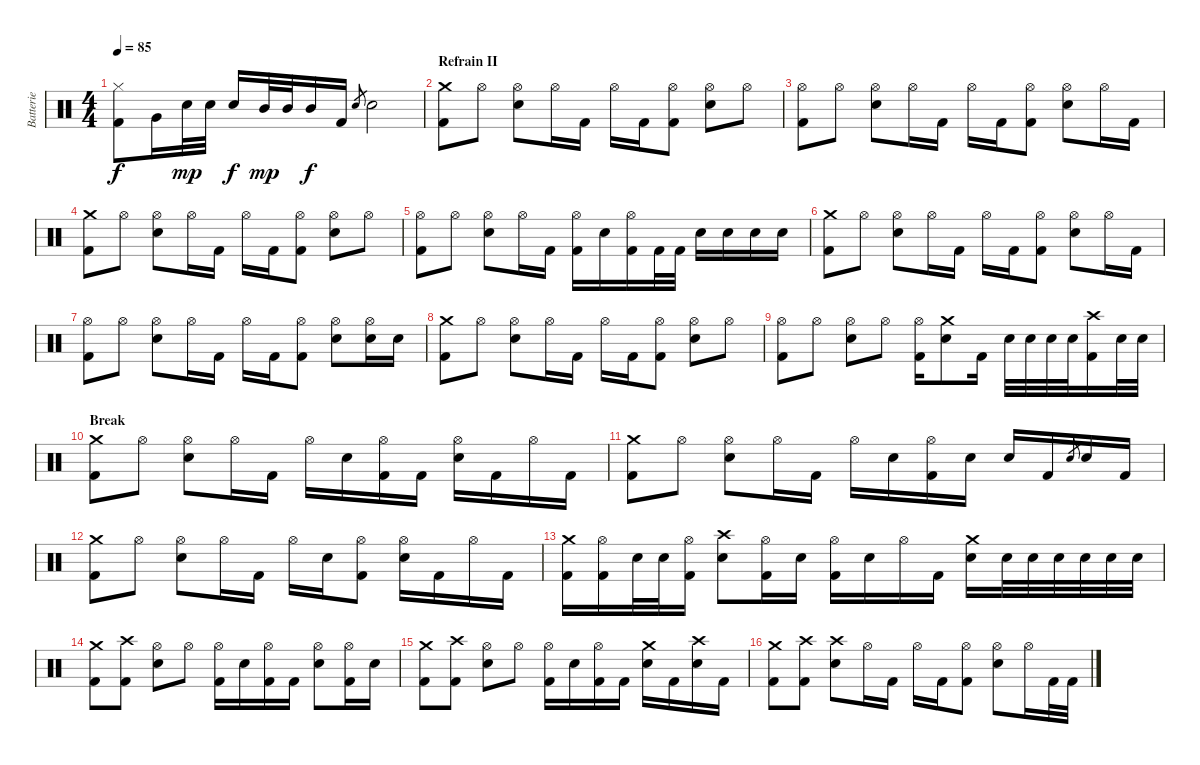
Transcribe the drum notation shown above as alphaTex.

\track ("Batterie" "Batterie") {instrument percussion}
\staff {score}
\articulation defaults
\ts (4 4)
\tempo 85
\clef neutral
\ks c
("Hi-Hat (closed)" "Kick (hit) 2").8{dy f} "Very Low Tom (hit)".16 "Electric Snare (hit)".32{dy mp} "Electric Snare (hit)".32 "Electric Snare (hit)".16{dy f} "Mid Tom (hit)".32{dy mp} "Mid Tom (hit)".32 "Mid Tom (hit)".16{dy f} "Kick (hit) 2".16 "Electric Snare (hit)".8{gr} "Electric Snare (hit)".2 |
\section ("" "Refrain II")
("Crash medium (hit)" "Kick (hit) 2").8 "Hi-Hat (open)".8 ("Hi-Hat (open)" "Electric Snare (hit)").8 "Hi-Hat (open)".16 "Kick (hit) 2".16 "Hi-Hat (open)".16 "Kick (hit) 2".16 ("Hi-Hat (open)" "Kick (hit) 2").8 ("Hi-Hat (open)" "Electric Snare (hit)").8 "Hi-Hat (open)".8 |
("Hi-Hat (open)" "Kick (hit) 2").8 "Hi-Hat (open)".8 ("Hi-Hat (open)" "Electric Snare (hit)").8 "Hi-Hat (open)".16 "Kick (hit) 2".16 "Hi-Hat (open)".16 "Kick (hit) 2".16 ("Hi-Hat (open)" "Kick (hit) 2").8 ("Hi-Hat (open)" "Electric Snare (hit)").8 "Hi-Hat (open)".16 "Kick (hit) 2".16 |
("Crash medium (hit)" "Kick (hit) 2").8 "Hi-Hat (open)".8 ("Hi-Hat (open)" "Electric Snare (hit)").8 "Hi-Hat (open)".16 "Kick (hit) 2".16 "Hi-Hat (open)".16 "Kick (hit) 2".16 ("Hi-Hat (open)" "Kick (hit) 2").8 ("Hi-Hat (open)" "Electric Snare (hit)").8 "Hi-Hat (open)".8 |
("Hi-Hat (open)" "Kick (hit) 2").8 "Hi-Hat (open)".8 ("Hi-Hat (open)" "Electric Snare (hit)").8 "Hi-Hat (open)".16 "Kick (hit) 2".16 ("Hi-Hat (open)" "Kick (hit) 2").16 "Electric Snare (hit)".16 ("Hi-Hat (open)" "Kick (hit) 2").16 "Kick (hit) 2".32 "Kick (hit) 2".32 "Electric Snare (hit)".16 "Electric Snare (hit)".16 "Electric Snare (hit)".16 "Electric Snare (hit)".16 |
("Crash medium (hit)" "Kick (hit) 2").8 "Hi-Hat (open)".8 ("Hi-Hat (open)" "Electric Snare (hit)").8 "Hi-Hat (open)".16 "Kick (hit) 2".16 "Hi-Hat (open)".16 "Kick (hit) 2".16 ("Hi-Hat (open)" "Kick (hit) 2").8 ("Hi-Hat (open)" "Electric Snare (hit)").8 "Hi-Hat (open)".16 "Kick (hit) 2".16 |
("Hi-Hat (open)" "Kick (hit) 2").8 "Hi-Hat (open)".8 ("Hi-Hat (open)" "Electric Snare (hit)").8 "Hi-Hat (open)".16 "Kick (hit) 2".16 "Hi-Hat (open)".16 "Kick (hit) 2".16 ("Hi-Hat (open)" "Kick (hit) 2").8 ("Hi-Hat (open)" "Electric Snare (hit)").8 ("Hi-Hat (open)" "Electric Snare (hit)").16 "Electric Snare (hit)".16 |
("Crash medium (hit)" "Kick (hit) 2").8 "Hi-Hat (open)".8 ("Hi-Hat (open)" "Electric Snare (hit)").8 "Hi-Hat (open)".16 "Kick (hit) 2".16 "Hi-Hat (open)".16 "Kick (hit) 2".16 ("Hi-Hat (open)" "Kick (hit) 2").8 ("Hi-Hat (open)" "Electric Snare (hit)").8 "Hi-Hat (open)".8 |
("Hi-Hat (open)" "Kick (hit) 2").8 "Hi-Hat (open)".8 ("Hi-Hat (open)" "Electric Snare (hit)").8 "Hi-Hat (open)".8 ("Hi-Hat (open)" "Kick (hit) 2").16 ("Crash medium (hit)" "Electric Snare (hit)").8 "Kick (hit) 2".16 "Electric Snare (hit)".32 "Electric Snare (hit)".32 "Electric Snare (hit)".32 "Electric Snare (hit)".32 ("Crash high (hit)" "Kick (hit) 2").16 "Electric Snare (hit)".32 "Electric Snare (hit)".32 |
\section ("" "Break")
("Crash medium (hit)" "Kick (hit) 2").8 "Hi-Hat (open)".8 ("Hi-Hat (open)" "Electric Snare (hit)").8 "Hi-Hat (open)".16 "Kick (hit) 2".16 "Hi-Hat (open)".16 "Electric Snare (hit)".16 ("Hi-Hat (open)" "Kick (hit) 2").16 "Kick (hit) 2".16 ("Hi-Hat (open)" "Electric Snare (hit)").16 "Kick (hit) 2".16 "Hi-Hat (open)".16 "Kick (hit) 2".16 |
("Crash medium (hit)" "Kick (hit) 2").8 "Hi-Hat (open)".8 ("Hi-Hat (open)" "Electric Snare (hit)").8 "Hi-Hat (open)".16 "Kick (hit) 2".16 "Hi-Hat (open)".16 "Electric Snare (hit)".16 ("Hi-Hat (open)" "Kick (hit) 2").16 "Electric Snare (hit)".16 "Electric Snare (hit)".16 "Kick (hit) 2".16 "Electric Snare (hit)".8{gr} "Electric Snare (hit)".16 "Kick (hit) 2".16 |
("Crash medium (hit)" "Kick (hit) 2").8 "Hi-Hat (open)".8 ("Hi-Hat (open)" "Electric Snare (hit)").8 "Hi-Hat (open)".16 "Kick (hit) 2".16 "Hi-Hat (open)".16 "Electric Snare (hit)".16 ("Hi-Hat (open)" "Kick (hit) 2").8 ("Hi-Hat (open)" "Electric Snare (hit)").16 "Kick (hit) 2".16 "Hi-Hat (open)".16 "Kick (hit) 2".16 |
("Crash medium (hit)" "Kick (hit) 2").16 ("Hi-Hat (open)" "Kick (hit) 2").16 "Electric Snare (hit)".32 "Electric Snare (hit)".32 ("Hi-Hat (open)" "Kick (hit) 2").16 ("Crash high (hit)" "Electric Snare (hit)").8 ("Hi-Hat (open)" "Kick (hit) 2").16 "Electric Snare (hit)".16 ("Hi-Hat (open)" "Kick (hit) 2").16 "Electric Snare (hit)".16 "Hi-Hat (open)".16 "Kick (hit) 2".16 ("Crash medium (hit)" "Electric Snare (hit)").16 "Electric Snare (hit)".32 "Electric Snare (hit)".32 "Electric Snare (hit)".32 "Electric Snare (hit)".32 "Electric Snare (hit)".32 "Electric Snare (hit)".32 |
("Crash medium (hit)" "Kick (hit) 2").8 ("Crash high (hit)" "Kick (hit) 2").8 ("Hi-Hat (open)" "Electric Snare (hit)").8 "Hi-Hat (open)".8 ("Hi-Hat (open)" "Kick (hit) 2").16 "Electric Snare (hit)".16 ("Hi-Hat (open)" "Kick (hit) 2").16 "Kick (hit) 2".16 ("Hi-Hat (open)" "Electric Snare (hit)").8 ("Hi-Hat (open)" "Kick (hit) 2").16 "Electric Snare (hit)".16 |
("Crash medium (hit)" "Kick (hit) 2").8 ("Crash high (hit)" "Kick (hit) 2").8 ("Hi-Hat (open)" "Electric Snare (hit)").8 "Hi-Hat (open)".8 ("Hi-Hat (open)" "Kick (hit) 2").16 "Electric Snare (hit)".16 ("Hi-Hat (open)" "Kick (hit) 2").16 "Kick (hit) 2".16 ("Crash medium (hit)" "Electric Snare (hit)").16 "Kick (hit) 2".16 ("Crash high (hit)" "Electric Snare (hit)").16 "Kick (hit) 2".16 |
("Crash medium (hit)" "Kick (hit) 2").8 ("Crash high (hit)" "Kick (hit) 2").8 ("Crash high (hit)" "Electric Snare (hit)").8 "Hi-Hat (open)".16 "Kick (hit) 2".16 "Hi-Hat (open)".16 "Kick (hit) 2".16 ("Hi-Hat (open)" "Kick (hit) 2").8 ("Hi-Hat (open)" "Electric Snare (hit)").8 "Hi-Hat (open)".16 "Kick (hit) 2".32 "Kick (hit) 2".32
